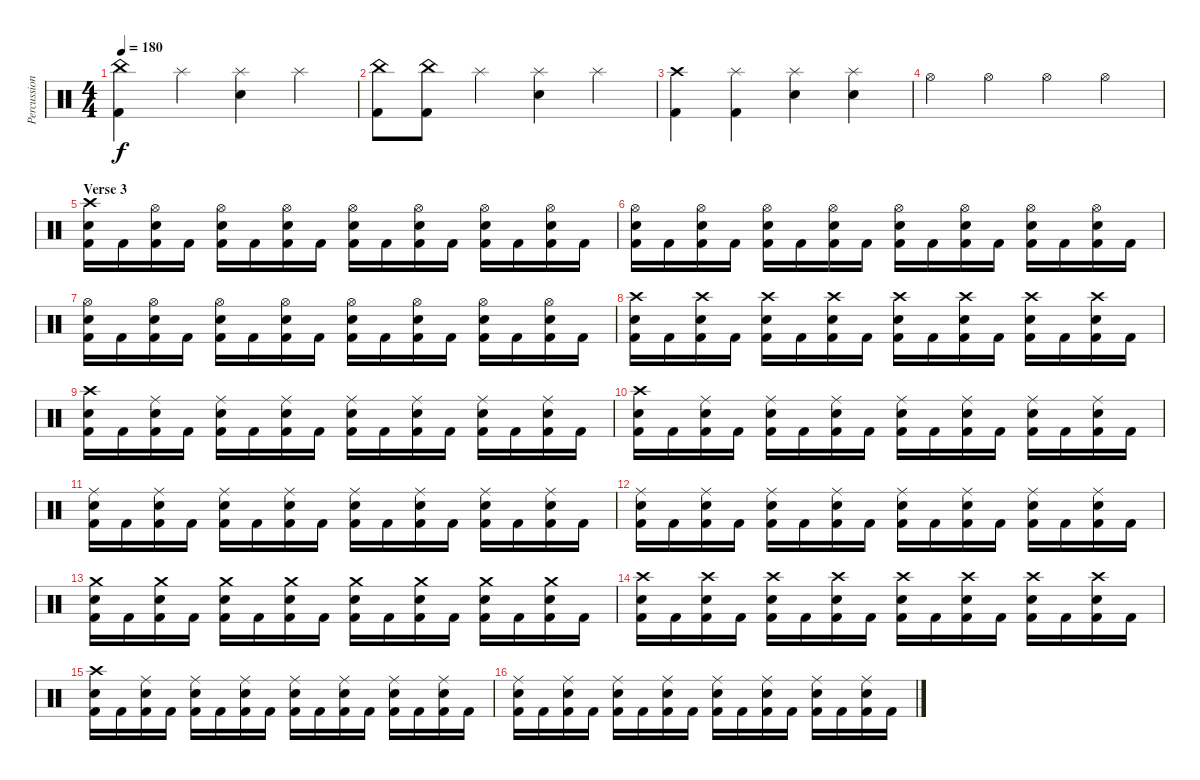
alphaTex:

\track ("Percussion" "Percussion") {instrument percussion}
\staff {score}
\articulation defaults
\ts (4 4)
\tempo 180
\clef neutral
\ks c
("China (hit)" "Kick (hit) 2").4{dy f} "Splash (hit)".4 ("Splash (hit)" "Snare (hit) 2").4 "Splash (hit)".4 |
("China (hit)" "Kick (hit) 2").8 ("China (hit)" "Kick (hit) 2").8 "Splash (hit)".4 ("Splash (hit)" "Snare (hit) 2").4 "Splash (hit)".4 |
("Crash high (hit)" "Kick (hit) 2").4 ("Splash (hit)" "Kick (hit) 2").4 ("Splash (hit)" "Snare (hit) 2").4 ("Splash (hit)" "Snare (hit) 2").4 |
"Hi-Hat (open)".4 "Hi-Hat (open)".4 "Hi-Hat (open)".4 "Hi-Hat (open)".4 |
\section ("" "Verse 3")
("Crash high (hit)" "Snare (hit) 2" "Kick (hit) 2").16 "Kick (hit) 2".16 ("Hi-Hat (open)" "Snare (hit) 2" "Kick (hit) 2").16 "Kick (hit) 2".16 ("Hi-Hat (open)" "Snare (hit) 2" "Kick (hit) 2").16 "Kick (hit) 2".16 ("Hi-Hat (open)" "Snare (hit) 2" "Kick (hit) 2").16 "Kick (hit) 2".16 ("Hi-Hat (open)" "Snare (hit) 2" "Kick (hit) 2").16 "Kick (hit) 2".16 ("Hi-Hat (open)" "Snare (hit) 2" "Kick (hit) 2").16 "Kick (hit) 2".16 ("Hi-Hat (open)" "Snare (hit) 2" "Kick (hit) 2").16 "Kick (hit) 2".16 ("Hi-Hat (open)" "Snare (hit) 2" "Kick (hit) 2").16 "Kick (hit) 2".16 |
("Hi-Hat (open)" "Snare (hit) 2" "Kick (hit) 2").16 "Kick (hit) 2".16 ("Hi-Hat (open)" "Snare (hit) 2" "Kick (hit) 2").16 "Kick (hit) 2".16 ("Hi-Hat (open)" "Snare (hit) 2" "Kick (hit) 2").16 "Kick (hit) 2".16 ("Hi-Hat (open)" "Snare (hit) 2" "Kick (hit) 2").16 "Kick (hit) 2".16 ("Hi-Hat (open)" "Snare (hit) 2" "Kick (hit) 2").16 "Kick (hit) 2".16 ("Hi-Hat (open)" "Snare (hit) 2" "Kick (hit) 2").16 "Kick (hit) 2".16 ("Hi-Hat (open)" "Snare (hit) 2" "Kick (hit) 2").16 "Kick (hit) 2".16 ("Hi-Hat (open)" "Snare (hit) 2" "Kick (hit) 2").16 "Kick (hit) 2".16 |
("Hi-Hat (open)" "Snare (hit) 2" "Kick (hit) 2").16 "Kick (hit) 2".16 ("Hi-Hat (open)" "Snare (hit) 2" "Kick (hit) 2").16 "Kick (hit) 2".16 ("Hi-Hat (open)" "Snare (hit) 2" "Kick (hit) 2").16 "Kick (hit) 2".16 ("Hi-Hat (open)" "Snare (hit) 2" "Kick (hit) 2").16 "Kick (hit) 2".16 ("Hi-Hat (open)" "Snare (hit) 2" "Kick (hit) 2").16 "Kick (hit) 2".16 ("Hi-Hat (open)" "Snare (hit) 2" "Kick (hit) 2").16 "Kick (hit) 2".16 ("Hi-Hat (open)" "Snare (hit) 2" "Kick (hit) 2").16 "Kick (hit) 2".16 ("Hi-Hat (open)" "Snare (hit) 2" "Kick (hit) 2").16 "Kick (hit) 2".16 |
("Crash high (hit)" "Snare (hit) 2" "Kick (hit) 2").16 "Kick (hit) 2".16 ("Crash high (hit)" "Snare (hit) 2" "Kick (hit) 2").16 "Kick (hit) 2".16 ("Crash high (hit)" "Snare (hit) 2" "Kick (hit) 2").16 "Kick (hit) 2".16 ("Crash high (hit)" "Snare (hit) 2" "Kick (hit) 2").16 "Kick (hit) 2".16 ("Crash high (hit)" "Snare (hit) 2" "Kick (hit) 2").16 "Kick (hit) 2".16 ("Crash high (hit)" "Snare (hit) 2" "Kick (hit) 2").16 "Kick (hit) 2".16 ("Crash high (hit)" "Snare (hit) 2" "Kick (hit) 2").16 "Kick (hit) 2".16 ("Crash high (hit)" "Snare (hit) 2" "Kick (hit) 2").16 "Kick (hit) 2".16 |
("Crash high (hit)" "Snare (hit) 2" "Kick (hit) 2").16 "Kick (hit) 2".16 ("Ride (middle)" "Snare (hit) 2" "Kick (hit) 2").16 "Kick (hit) 2".16 ("Ride (middle)" "Snare (hit) 2" "Kick (hit) 2").16 "Kick (hit) 2".16 ("Ride (middle)" "Snare (hit) 2" "Kick (hit) 2").16 "Kick (hit) 2".16 ("Ride (middle)" "Snare (hit) 2" "Kick (hit) 2").16 "Kick (hit) 2".16 ("Ride (middle)" "Snare (hit) 2" "Kick (hit) 2").16 "Kick (hit) 2".16 ("Ride (middle)" "Snare (hit) 2" "Kick (hit) 2").16 "Kick (hit) 2".16 ("Ride (middle)" "Snare (hit) 2" "Kick (hit) 2").16 "Kick (hit) 2".16 |
("Crash high (hit)" "Snare (hit) 2" "Kick (hit) 2").16 "Kick (hit) 2".16 ("Ride (middle)" "Snare (hit) 2" "Kick (hit) 2").16 "Kick (hit) 2".16 ("Ride (middle)" "Snare (hit) 2" "Kick (hit) 2").16 "Kick (hit) 2".16 ("Ride (middle)" "Snare (hit) 2" "Kick (hit) 2").16 "Kick (hit) 2".16 ("Ride (middle)" "Snare (hit) 2" "Kick (hit) 2").16 "Kick (hit) 2".16 ("Ride (middle)" "Snare (hit) 2" "Kick (hit) 2").16 "Kick (hit) 2".16 ("Ride (middle)" "Snare (hit) 2" "Kick (hit) 2").16 "Kick (hit) 2".16 ("Ride (middle)" "Snare (hit) 2" "Kick (hit) 2").16 "Kick (hit) 2".16 |
("Ride (middle)" "Snare (hit) 2" "Kick (hit) 2").16 "Kick (hit) 2".16 ("Ride (middle)" "Snare (hit) 2" "Kick (hit) 2").16 "Kick (hit) 2".16 ("Ride (middle)" "Snare (hit) 2" "Kick (hit) 2").16 "Kick (hit) 2".16 ("Ride (middle)" "Snare (hit) 2" "Kick (hit) 2").16 "Kick (hit) 2".16 ("Ride (middle)" "Snare (hit) 2" "Kick (hit) 2").16 "Kick (hit) 2".16 ("Ride (middle)" "Snare (hit) 2" "Kick (hit) 2").16 "Kick (hit) 2".16 ("Ride (middle)" "Snare (hit) 2" "Kick (hit) 2").16 "Kick (hit) 2".16 ("Ride (middle)" "Snare (hit) 2" "Kick (hit) 2").16 "Kick (hit) 2".16 |
("Ride (middle)" "Snare (hit) 2" "Kick (hit) 2").16 "Kick (hit) 2".16 ("Ride (middle)" "Snare (hit) 2" "Kick (hit) 2").16 "Kick (hit) 2".16 ("Ride (middle)" "Snare (hit) 2" "Kick (hit) 2").16 "Kick (hit) 2".16 ("Ride (middle)" "Snare (hit) 2" "Kick (hit) 2").16 "Kick (hit) 2".16 ("Ride (middle)" "Snare (hit) 2" "Kick (hit) 2").16 "Kick (hit) 2".16 ("Ride (middle)" "Snare (hit) 2" "Kick (hit) 2").16 "Kick (hit) 2".16 ("Ride (middle)" "Snare (hit) 2" "Kick (hit) 2").16 "Kick (hit) 2".16 ("Ride (middle)" "Snare (hit) 2" "Kick (hit) 2").16 "Kick (hit) 2".16 |
("Crash medium (hit)" "Snare (hit) 2" "Kick (hit) 2").16 "Kick (hit) 2".16 ("Crash medium (hit)" "Snare (hit) 2" "Kick (hit) 2").16 "Kick (hit) 2".16 ("Crash medium (hit)" "Snare (hit) 2" "Kick (hit) 2").16 "Kick (hit) 2".16 ("Crash medium (hit)" "Snare (hit) 2" "Kick (hit) 2").16 "Kick (hit) 2".16 ("Crash medium (hit)" "Snare (hit) 2" "Kick (hit) 2").16 "Kick (hit) 2".16 ("Crash medium (hit)" "Snare (hit) 2" "Kick (hit) 2").16 "Kick (hit) 2".16 ("Crash medium (hit)" "Snare (hit) 2" "Kick (hit) 2").16 "Kick (hit) 2".16 ("Crash medium (hit)" "Snare (hit) 2" "Kick (hit) 2").16 "Kick (hit) 2".16 |
("Crash high (hit)" "Snare (hit) 2" "Kick (hit) 2").16 "Kick (hit) 2".16 ("Crash high (hit)" "Snare (hit) 2" "Kick (hit) 2").16 "Kick (hit) 2".16 ("Crash high (hit)" "Snare (hit) 2" "Kick (hit) 2").16 "Kick (hit) 2".16 ("Crash high (hit)" "Snare (hit) 2" "Kick (hit) 2").16 "Kick (hit) 2".16 ("Crash high (hit)" "Snare (hit) 2" "Kick (hit) 2").16 "Kick (hit) 2".16 ("Crash high (hit)" "Snare (hit) 2" "Kick (hit) 2").16 "Kick (hit) 2".16 ("Crash high (hit)" "Snare (hit) 2" "Kick (hit) 2").16 "Kick (hit) 2".16 ("Crash high (hit)" "Snare (hit) 2" "Kick (hit) 2").16 "Kick (hit) 2".16 |
("Crash high (hit)" "Snare (hit) 2" "Kick (hit) 2").16 "Kick (hit) 2".16 ("Ride (middle)" "Snare (hit) 2" "Kick (hit) 2").16 "Kick (hit) 2".16 ("Ride (middle)" "Snare (hit) 2" "Kick (hit) 2").16 "Kick (hit) 2".16 ("Ride (middle)" "Snare (hit) 2" "Kick (hit) 2").16 "Kick (hit) 2".16 ("Ride (middle)" "Snare (hit) 2" "Kick (hit) 2").16 "Kick (hit) 2".16 ("Ride (middle)" "Snare (hit) 2" "Kick (hit) 2").16 "Kick (hit) 2".16 ("Ride (middle)" "Snare (hit) 2" "Kick (hit) 2").16 "Kick (hit) 2".16 ("Ride (middle)" "Snare (hit) 2" "Kick (hit) 2").16 "Kick (hit) 2".16 |
("Ride (middle)" "Snare (hit) 2" "Kick (hit) 2").16 "Kick (hit) 2".16 ("Ride (middle)" "Snare (hit) 2" "Kick (hit) 2").16 "Kick (hit) 2".16 ("Ride (middle)" "Snare (hit) 2" "Kick (hit) 2").16 "Kick (hit) 2".16 ("Ride (middle)" "Snare (hit) 2" "Kick (hit) 2").16 "Kick (hit) 2".16 ("Ride (middle)" "Snare (hit) 2" "Kick (hit) 2").16 "Kick (hit) 2".16 ("Ride (middle)" "Snare (hit) 2" "Kick (hit) 2").16 "Kick (hit) 2".16 ("Ride (middle)" "Snare (hit) 2" "Kick (hit) 2").16 "Kick (hit) 2".16 ("Ride (middle)" "Snare (hit) 2" "Kick (hit) 2").16 "Kick (hit) 2".16
